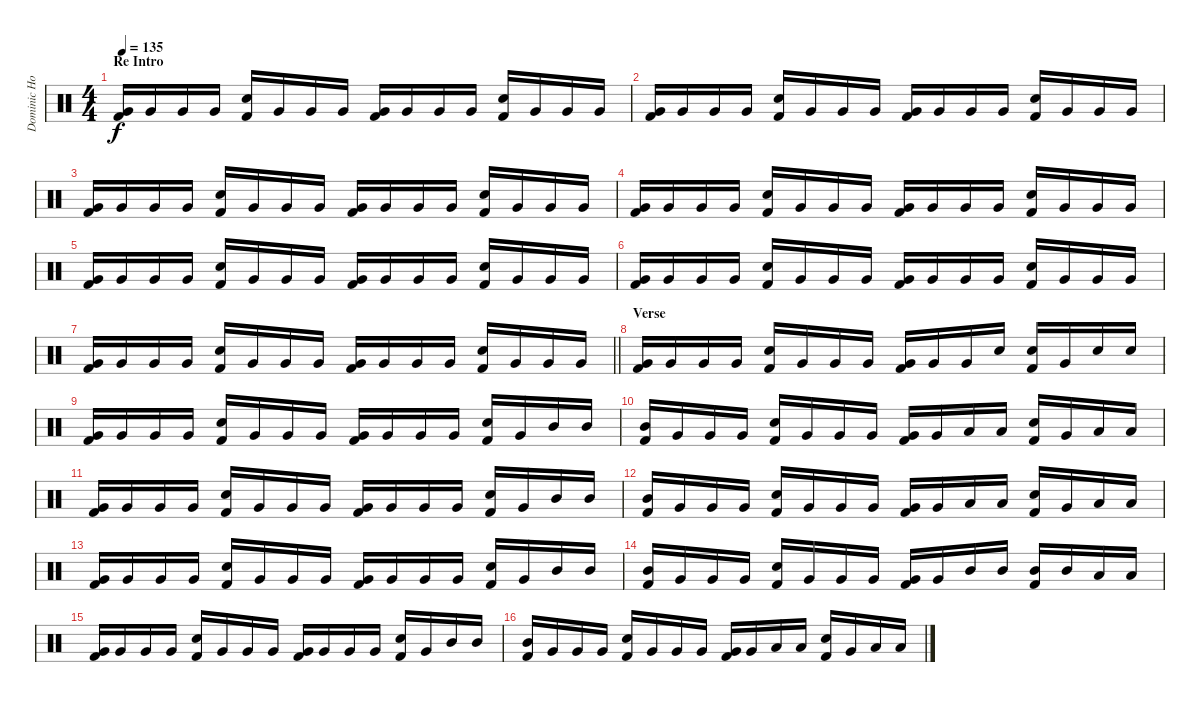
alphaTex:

\track ("Dominic Howard (Drums)" "Dominic Ho") {instrument percussion}
\staff {score}
\articulation defaults
\ts (4 4)
\section ("" "Re Intro")
\tempo 135
\clef neutral
\ks c
("Kick (hit) 2" "Very Low Tom (hit)").16{dy f} "Very Low Tom (hit)".16 "Very Low Tom (hit)".16 "Very Low Tom (hit)".16 ("Electric Snare (hit)" "Kick (hit) 2").16 "Very Low Tom (hit)".16 "Very Low Tom (hit)".16 "Very Low Tom (hit)".16 ("Kick (hit) 2" "Very Low Tom (hit)").16 "Very Low Tom (hit)".16 "Very Low Tom (hit)".16 "Very Low Tom (hit)".16 ("Electric Snare (hit)" "Kick (hit) 2").16 "Very Low Tom (hit)".16 "Very Low Tom (hit)".16 "Very Low Tom (hit)".16 |
("Kick (hit) 2" "Very Low Tom (hit)").16 "Very Low Tom (hit)".16 "Very Low Tom (hit)".16 "Very Low Tom (hit)".16 ("Electric Snare (hit)" "Kick (hit) 2").16 "Very Low Tom (hit)".16 "Very Low Tom (hit)".16 "Very Low Tom (hit)".16 ("Kick (hit) 2" "Very Low Tom (hit)").16 "Very Low Tom (hit)".16 "Very Low Tom (hit)".16 "Very Low Tom (hit)".16 ("Electric Snare (hit)" "Kick (hit) 2").16 "Very Low Tom (hit)".16 "Very Low Tom (hit)".16 "Very Low Tom (hit)".16 |
("Kick (hit) 2" "Very Low Tom (hit)").16 "Very Low Tom (hit)".16 "Very Low Tom (hit)".16 "Very Low Tom (hit)".16 ("Electric Snare (hit)" "Kick (hit) 2").16 "Very Low Tom (hit)".16 "Very Low Tom (hit)".16 "Very Low Tom (hit)".16 ("Kick (hit) 2" "Very Low Tom (hit)").16 "Very Low Tom (hit)".16 "Very Low Tom (hit)".16 "Very Low Tom (hit)".16 ("Electric Snare (hit)" "Kick (hit) 2").16 "Very Low Tom (hit)".16 "Very Low Tom (hit)".16 "Very Low Tom (hit)".16 |
("Kick (hit) 2" "Very Low Tom (hit)").16 "Very Low Tom (hit)".16 "Very Low Tom (hit)".16 "Very Low Tom (hit)".16 ("Electric Snare (hit)" "Kick (hit) 2").16 "Very Low Tom (hit)".16 "Very Low Tom (hit)".16 "Very Low Tom (hit)".16 ("Kick (hit) 2" "Very Low Tom (hit)").16 "Very Low Tom (hit)".16 "Very Low Tom (hit)".16 "Very Low Tom (hit)".16 ("Electric Snare (hit)" "Kick (hit) 2").16 "Very Low Tom (hit)".16 "Very Low Tom (hit)".16 "Very Low Tom (hit)".16 |
("Kick (hit) 2" "Very Low Tom (hit)").16 "Very Low Tom (hit)".16 "Very Low Tom (hit)".16 "Very Low Tom (hit)".16 ("Electric Snare (hit)" "Kick (hit) 2").16 "Very Low Tom (hit)".16 "Very Low Tom (hit)".16 "Very Low Tom (hit)".16 ("Kick (hit) 2" "Very Low Tom (hit)").16 "Very Low Tom (hit)".16 "Very Low Tom (hit)".16 "Very Low Tom (hit)".16 ("Electric Snare (hit)" "Kick (hit) 2").16 "Very Low Tom (hit)".16 "Very Low Tom (hit)".16 "Very Low Tom (hit)".16 |
("Kick (hit) 2" "Very Low Tom (hit)").16 "Very Low Tom (hit)".16 "Very Low Tom (hit)".16 "Very Low Tom (hit)".16 ("Electric Snare (hit)" "Kick (hit) 2").16 "Very Low Tom (hit)".16 "Very Low Tom (hit)".16 "Very Low Tom (hit)".16 ("Kick (hit) 2" "Very Low Tom (hit)").16 "Very Low Tom (hit)".16 "Very Low Tom (hit)".16 "Very Low Tom (hit)".16 ("Electric Snare (hit)" "Kick (hit) 2").16 "Very Low Tom (hit)".16 "Very Low Tom (hit)".16 "Very Low Tom (hit)".16 |
\barLineRight lightlight
("Kick (hit) 2" "Very Low Tom (hit)").16 "Very Low Tom (hit)".16 "Very Low Tom (hit)".16 "Very Low Tom (hit)".16 ("Electric Snare (hit)" "Kick (hit) 2").16 "Very Low Tom (hit)".16 "Very Low Tom (hit)".16 "Very Low Tom (hit)".16 ("Kick (hit) 2" "Very Low Tom (hit)").16 "Very Low Tom (hit)".16 "Very Low Tom (hit)".16 "Very Low Tom (hit)".16 ("Electric Snare (hit)" "Kick (hit) 2").16 "Very Low Tom (hit)".16 "Very Low Tom (hit)".16 "Very Low Tom (hit)".16 |
\section ("" "Verse")
("Kick (hit) 2" "Very Low Tom (hit)").16 "Very Low Tom (hit)".16 "Very Low Tom (hit)".16 "Very Low Tom (hit)".16 ("Electric Snare (hit)" "Kick (hit) 2").16 "Very Low Tom (hit)".16 "Very Low Tom (hit)".16 "Very Low Tom (hit)".16 ("Kick (hit) 2" "Very Low Tom (hit)").16 "Very Low Tom (hit)".16 "Very Low Tom (hit)".16 "Electric Snare (hit)".16 ("Electric Snare (hit)" "Kick (hit) 2").16 "Very Low Tom (hit)".16 "Electric Snare (hit)".16 "Electric Snare (hit)".16 |
("Kick (hit) 2" "Very Low Tom (hit)").16 "Very Low Tom (hit)".16 "Very Low Tom (hit)".16 "Very Low Tom (hit)".16 ("Electric Snare (hit)" "Kick (hit) 2").16 "Very Low Tom (hit)".16 "Very Low Tom (hit)".16 "Very Low Tom (hit)".16 ("Kick (hit) 2" "Very Low Tom (hit)").16 "Very Low Tom (hit)".16 "Very Low Tom (hit)".16 "Very Low Tom (hit)".16 ("Electric Snare (hit)" "Kick (hit) 2").16 "Very Low Tom (hit)".16 "Mid Tom (hit)".16 "Mid Tom (hit)".16 |
("Kick (hit) 2" "Mid Tom (hit)").16 "Very Low Tom (hit)".16 "Very Low Tom (hit)".16 "Very Low Tom (hit)".16 ("Electric Snare (hit)" "Kick (hit) 2").16 "Very Low Tom (hit)".16 "Very Low Tom (hit)".16 "Very Low Tom (hit)".16 ("Kick (hit) 2" "Very Low Tom (hit)").16 "Very Low Tom (hit)".16 "Low Tom (hit)".16 "Low Tom (hit)".16 ("Electric Snare (hit)" "Kick (hit) 2").16 "Very Low Tom (hit)".16 "Low Tom (hit)".16 "Low Tom (hit)".16 |
("Kick (hit) 2" "Very Low Tom (hit)").16 "Very Low Tom (hit)".16 "Very Low Tom (hit)".16 "Very Low Tom (hit)".16 ("Electric Snare (hit)" "Kick (hit) 2").16 "Very Low Tom (hit)".16 "Very Low Tom (hit)".16 "Very Low Tom (hit)".16 ("Kick (hit) 2" "Very Low Tom (hit)").16 "Very Low Tom (hit)".16 "Very Low Tom (hit)".16 "Very Low Tom (hit)".16 ("Electric Snare (hit)" "Kick (hit) 2").16 "Very Low Tom (hit)".16 "Mid Tom (hit)".16 "Mid Tom (hit)".16 |
("Kick (hit) 2" "Mid Tom (hit)").16 "Very Low Tom (hit)".16 "Very Low Tom (hit)".16 "Very Low Tom (hit)".16 ("Electric Snare (hit)" "Kick (hit) 2").16 "Very Low Tom (hit)".16 "Very Low Tom (hit)".16 "Very Low Tom (hit)".16 ("Kick (hit) 2" "Very Low Tom (hit)").16 "Very Low Tom (hit)".16 "Low Tom (hit)".16 "Low Tom (hit)".16 ("Electric Snare (hit)" "Kick (hit) 2").16 "Very Low Tom (hit)".16 "Low Tom (hit)".16 "Low Tom (hit)".16 |
("Kick (hit) 2" "Very Low Tom (hit)").16 "Very Low Tom (hit)".16 "Very Low Tom (hit)".16 "Very Low Tom (hit)".16 ("Electric Snare (hit)" "Kick (hit) 2").16 "Very Low Tom (hit)".16 "Very Low Tom (hit)".16 "Very Low Tom (hit)".16 ("Kick (hit) 2" "Very Low Tom (hit)").16 "Very Low Tom (hit)".16 "Very Low Tom (hit)".16 "Very Low Tom (hit)".16 ("Electric Snare (hit)" "Kick (hit) 2").16 "Very Low Tom (hit)".16 "Mid Tom (hit)".16 "Mid Tom (hit)".16 |
("Kick (hit) 2" "Mid Tom (hit)").16 "Very Low Tom (hit)".16 "Very Low Tom (hit)".16 "Very Low Tom (hit)".16 ("Electric Snare (hit)" "Kick (hit) 2").16 "Very Low Tom (hit)".16 "Very Low Tom (hit)".16 "Very Low Tom (hit)".16 ("Kick (hit) 2" "Very Low Tom (hit)").16 "Very Low Tom (hit)".16 "Mid Tom (hit)".16 "Mid Tom (hit)".16 ("Kick (hit) 2" "Mid Tom (hit)").16 "Mid Tom (hit)".16 "Low Tom (hit)".16 "Low Tom (hit)".16 |
("Kick (hit) 2" "Very Low Tom (hit)").16 "Very Low Tom (hit)".16 "Very Low Tom (hit)".16 "Very Low Tom (hit)".16 ("Electric Snare (hit)" "Kick (hit) 2").16 "Very Low Tom (hit)".16 "Very Low Tom (hit)".16 "Very Low Tom (hit)".16 ("Kick (hit) 2" "Very Low Tom (hit)").16 "Very Low Tom (hit)".16 "Very Low Tom (hit)".16 "Very Low Tom (hit)".16 ("Electric Snare (hit)" "Kick (hit) 2").16 "Very Low Tom (hit)".16 "Mid Tom (hit)".16 "Mid Tom (hit)".16 |
("Kick (hit) 2" "Mid Tom (hit)").16 "Very Low Tom (hit)".16 "Very Low Tom (hit)".16 "Very Low Tom (hit)".16 ("Electric Snare (hit)" "Kick (hit) 2").16 "Very Low Tom (hit)".16 "Very Low Tom (hit)".16 "Very Low Tom (hit)".16 ("Kick (hit) 2" "Very Low Tom (hit)").16 "Very Low Tom (hit)".16 "Low Tom (hit)".16 "Low Tom (hit)".16 ("Electric Snare (hit)" "Kick (hit) 2").16 "Very Low Tom (hit)".16 "Low Tom (hit)".16 "Low Tom (hit)".16
